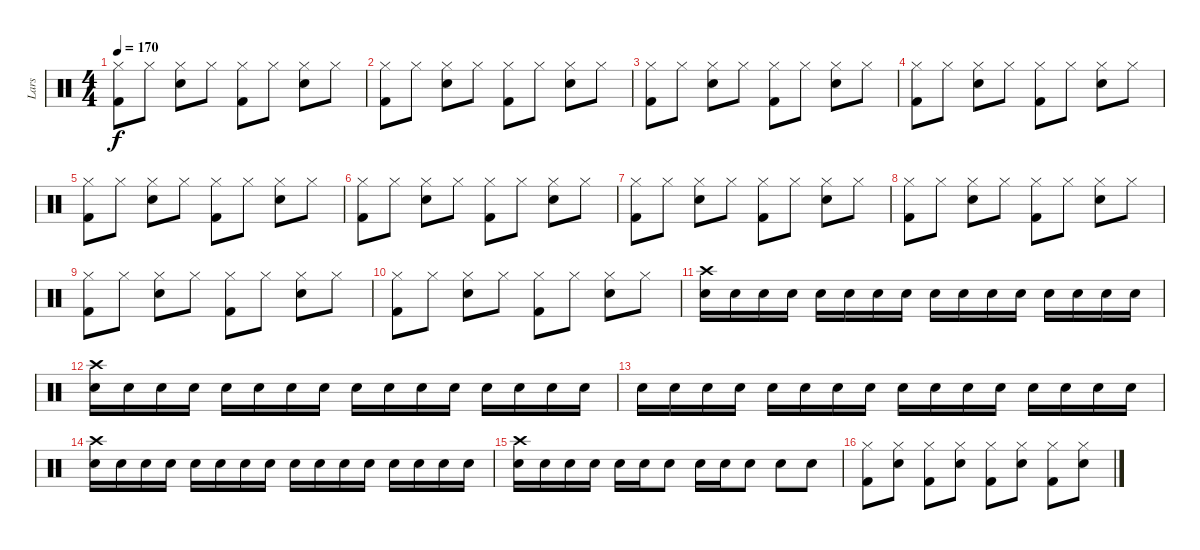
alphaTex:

\track ("Lars" "Lars") {instrument percussion}
\staff {score}
\articulation defaults
\ts (4 4)
\tempo 170
\clef neutral
\ks c
("Hi-Hat (closed)" "Kick (hit) 2").8{dy f} "Hi-Hat (closed)".8 ("Hi-Hat (closed)" "Electric Snare (hit)").8 "Hi-Hat (closed)".8 ("Hi-Hat (closed)" "Kick (hit) 2").8 "Hi-Hat (closed)".8 ("Hi-Hat (closed)" "Electric Snare (hit)").8 "Hi-Hat (closed)".8 |
("Hi-Hat (closed)" "Kick (hit) 2").8 "Hi-Hat (closed)".8 ("Hi-Hat (closed)" "Electric Snare (hit)").8 "Hi-Hat (closed)".8 ("Hi-Hat (closed)" "Kick (hit) 2").8 "Hi-Hat (closed)".8 ("Hi-Hat (closed)" "Electric Snare (hit)").8 "Hi-Hat (closed)".8 |
("Hi-Hat (closed)" "Kick (hit) 2").8 "Hi-Hat (closed)".8 ("Hi-Hat (closed)" "Electric Snare (hit)").8 "Hi-Hat (closed)".8 ("Hi-Hat (closed)" "Kick (hit) 2").8 "Hi-Hat (closed)".8 ("Hi-Hat (closed)" "Electric Snare (hit)").8 "Hi-Hat (closed)".8 |
("Hi-Hat (closed)" "Kick (hit) 2").8 "Hi-Hat (closed)".8 ("Hi-Hat (closed)" "Electric Snare (hit)").8 "Hi-Hat (closed)".8 ("Hi-Hat (closed)" "Kick (hit) 2").8 "Hi-Hat (closed)".8 ("Hi-Hat (closed)" "Electric Snare (hit)").8 "Hi-Hat (closed)".8 |
("Hi-Hat (closed)" "Kick (hit) 2").8 "Hi-Hat (closed)".8 ("Hi-Hat (closed)" "Electric Snare (hit)").8 "Hi-Hat (closed)".8 ("Hi-Hat (closed)" "Kick (hit) 2").8 "Hi-Hat (closed)".8 ("Hi-Hat (closed)" "Electric Snare (hit)").8 "Hi-Hat (closed)".8 |
("Hi-Hat (closed)" "Kick (hit) 2").8 "Hi-Hat (closed)".8 ("Hi-Hat (closed)" "Electric Snare (hit)").8 "Hi-Hat (closed)".8 ("Hi-Hat (closed)" "Kick (hit) 2").8 "Hi-Hat (closed)".8 ("Hi-Hat (closed)" "Electric Snare (hit)").8 "Hi-Hat (closed)".8 |
("Hi-Hat (closed)" "Kick (hit) 2").8 "Hi-Hat (closed)".8 ("Hi-Hat (closed)" "Electric Snare (hit)").8 "Hi-Hat (closed)".8 ("Hi-Hat (closed)" "Kick (hit) 2").8 "Hi-Hat (closed)".8 ("Hi-Hat (closed)" "Electric Snare (hit)").8 "Hi-Hat (closed)".8 |
("Hi-Hat (closed)" "Kick (hit) 2").8 "Hi-Hat (closed)".8 ("Hi-Hat (closed)" "Electric Snare (hit)").8 "Hi-Hat (closed)".8 ("Hi-Hat (closed)" "Kick (hit) 2").8 "Hi-Hat (closed)".8 ("Hi-Hat (closed)" "Electric Snare (hit)").8 "Hi-Hat (closed)".8 |
("Hi-Hat (closed)" "Kick (hit) 2").8 "Hi-Hat (closed)".8 ("Hi-Hat (closed)" "Electric Snare (hit)").8 "Hi-Hat (closed)".8 ("Hi-Hat (closed)" "Kick (hit) 2").8 "Hi-Hat (closed)".8 ("Hi-Hat (closed)" "Electric Snare (hit)").8 "Hi-Hat (closed)".8 |
("Hi-Hat (closed)" "Kick (hit) 2").8 "Hi-Hat (closed)".8 ("Hi-Hat (closed)" "Electric Snare (hit)").8 "Hi-Hat (closed)".8 ("Hi-Hat (closed)" "Kick (hit) 2").8 "Hi-Hat (closed)".8 ("Hi-Hat (closed)" "Electric Snare (hit)").8 "Hi-Hat (closed)".8 |
("Crash high (hit)" "Electric Snare (hit)").16 "Electric Snare (hit)".16 "Electric Snare (hit)".16 "Electric Snare (hit)".16 "Electric Snare (hit)".16 "Electric Snare (hit)".16 "Electric Snare (hit)".16 "Electric Snare (hit)".16 "Electric Snare (hit)".16 "Electric Snare (hit)".16 "Electric Snare (hit)".16 "Electric Snare (hit)".16 "Electric Snare (hit)".16 "Electric Snare (hit)".16 "Electric Snare (hit)".16 "Electric Snare (hit)".16 |
("Crash high (hit)" "Electric Snare (hit)").16 "Electric Snare (hit)".16 "Electric Snare (hit)".16 "Electric Snare (hit)".16 "Electric Snare (hit)".16 "Electric Snare (hit)".16 "Electric Snare (hit)".16 "Electric Snare (hit)".16 "Electric Snare (hit)".16 "Electric Snare (hit)".16 "Electric Snare (hit)".16 "Electric Snare (hit)".16 "Electric Snare (hit)".16 "Electric Snare (hit)".16 "Electric Snare (hit)".16 "Electric Snare (hit)".16 |
"Electric Snare (hit)".16 "Electric Snare (hit)".16 "Electric Snare (hit)".16 "Electric Snare (hit)".16 "Electric Snare (hit)".16 "Electric Snare (hit)".16 "Electric Snare (hit)".16 "Electric Snare (hit)".16 "Electric Snare (hit)".16 "Electric Snare (hit)".16 "Electric Snare (hit)".16 "Electric Snare (hit)".16 "Electric Snare (hit)".16 "Electric Snare (hit)".16 "Electric Snare (hit)".16 "Electric Snare (hit)".16 |
("Crash high (hit)" "Electric Snare (hit)").16 "Electric Snare (hit)".16 "Electric Snare (hit)".16 "Electric Snare (hit)".16 "Electric Snare (hit)".16 "Electric Snare (hit)".16 "Electric Snare (hit)".16 "Electric Snare (hit)".16 "Electric Snare (hit)".16 "Electric Snare (hit)".16 "Electric Snare (hit)".16 "Electric Snare (hit)".16 "Electric Snare (hit)".16 "Electric Snare (hit)".16 "Electric Snare (hit)".16 "Electric Snare (hit)".16 |
("Crash high (hit)" "Electric Snare (hit)").16 "Electric Snare (hit)".16 "Electric Snare (hit)".16 "Electric Snare (hit)".16 "Electric Snare (hit)".16 "Electric Snare (hit)".16 "Electric Snare (hit)".8 "Electric Snare (hit)".16 "Electric Snare (hit)".16 "Electric Snare (hit)".8 "Electric Snare (hit)".8 "Electric Snare (hit)".8 |
("Hi-Hat (closed)" "Kick (hit) 2").8 ("Hi-Hat (closed)" "Electric Snare (hit)").8 ("Hi-Hat (closed)" "Kick (hit) 2").8 ("Hi-Hat (closed)" "Electric Snare (hit)").8 ("Hi-Hat (closed)" "Kick (hit) 2").8 ("Hi-Hat (closed)" "Electric Snare (hit)").8 ("Hi-Hat (closed)" "Kick (hit) 2").8 ("Hi-Hat (closed)" "Electric Snare (hit)").8
